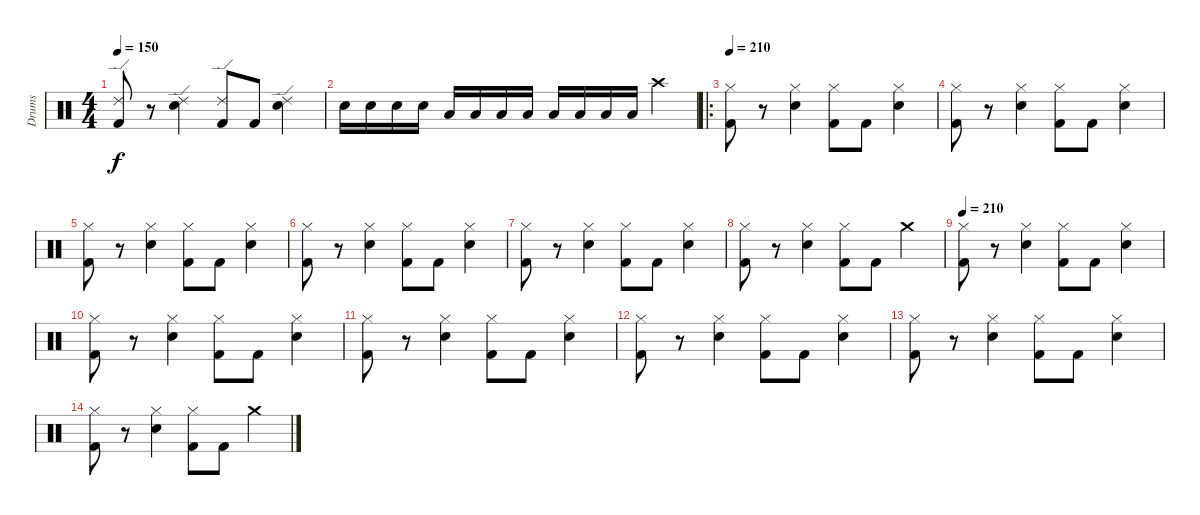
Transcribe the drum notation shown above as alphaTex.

\track ("Drums" "Drums") {instrument percussion}
\staff {score}
\articulation defaults
\ts (4 4)
\tempo 150
\clef neutral
\ks c
("Kick (hit) 2" "Ride (edge) 2").8{dy f} r.8 ("Snare (hit) 2" "Ride (edge) 2").4 ("Kick (hit) 2" "Ride (edge) 2").8 "Kick (hit) 2".8 ("Snare (hit) 2" "Ride (edge) 2").4 |
"Snare (hit) 2".16 "Snare (hit) 2".16 "Snare (hit) 2".16 "Snare (hit) 2".16 "Low Tom (hit)".16 "Low Tom (hit)".16 "Low Tom (hit)".16 "Low Tom (hit)".16 "Low Floor Tom (hit)".16 "Low Floor Tom (hit)".16 "Low Floor Tom (hit)".16 "Low Floor Tom (hit)".16 "Crash high (hit)".4 |
\ro
\tempo 210
("Kick (hit) 2" "Hi-Hat (closed)").8 r.8 ("Snare (hit) 2" "Hi-Hat (closed)").4 ("Kick (hit) 2" "Hi-Hat (closed)").8 "Kick (hit) 2".8 ("Snare (hit) 2" "Hi-Hat (closed)").4 |
("Kick (hit) 2" "Hi-Hat (closed)").8 r.8 ("Snare (hit) 2" "Hi-Hat (closed)").4 ("Kick (hit) 2" "Hi-Hat (closed)").8 "Kick (hit) 2".8 ("Snare (hit) 2" "Hi-Hat (closed)").4 |
("Kick (hit) 2" "Hi-Hat (closed)").8 r.8 ("Snare (hit) 2" "Hi-Hat (closed)").4 ("Kick (hit) 2" "Hi-Hat (closed)").8 "Kick (hit) 2".8 ("Snare (hit) 2" "Hi-Hat (closed)").4 |
("Kick (hit) 2" "Hi-Hat (closed)").8 r.8 ("Snare (hit) 2" "Hi-Hat (closed)").4 ("Kick (hit) 2" "Hi-Hat (closed)").8 "Kick (hit) 2".8 ("Snare (hit) 2" "Hi-Hat (closed)").4 |
("Kick (hit) 2" "Hi-Hat (closed)").8 r.8 ("Snare (hit) 2" "Hi-Hat (closed)").4 ("Kick (hit) 2" "Hi-Hat (closed)").8 "Kick (hit) 2".8 ("Snare (hit) 2" "Hi-Hat (closed)").4 |
("Kick (hit) 2" "Hi-Hat (closed)").8 r.8 ("Snare (hit) 2" "Hi-Hat (closed)").4 ("Kick (hit) 2" "Hi-Hat (closed)").8 "Kick (hit) 2".8 "Crash medium (hit)".4 |
\tempo 210
("Kick (hit) 2" "Hi-Hat (closed)").8 r.8 ("Snare (hit) 2" "Hi-Hat (closed)").4 ("Kick (hit) 2" "Hi-Hat (closed)").8 "Kick (hit) 2".8 ("Snare (hit) 2" "Hi-Hat (closed)").4 |
("Kick (hit) 2" "Hi-Hat (closed)").8 r.8 ("Snare (hit) 2" "Hi-Hat (closed)").4 ("Kick (hit) 2" "Hi-Hat (closed)").8 "Kick (hit) 2".8 ("Snare (hit) 2" "Hi-Hat (closed)").4 |
("Kick (hit) 2" "Hi-Hat (closed)").8 r.8 ("Snare (hit) 2" "Hi-Hat (closed)").4 ("Kick (hit) 2" "Hi-Hat (closed)").8 "Kick (hit) 2".8 ("Snare (hit) 2" "Hi-Hat (closed)").4 |
("Kick (hit) 2" "Hi-Hat (closed)").8 r.8 ("Snare (hit) 2" "Hi-Hat (closed)").4 ("Kick (hit) 2" "Hi-Hat (closed)").8 "Kick (hit) 2".8 ("Snare (hit) 2" "Hi-Hat (closed)").4 |
("Kick (hit) 2" "Hi-Hat (closed)").8 r.8 ("Snare (hit) 2" "Hi-Hat (closed)").4 ("Kick (hit) 2" "Hi-Hat (closed)").8 "Kick (hit) 2".8 ("Snare (hit) 2" "Hi-Hat (closed)").4 |
("Kick (hit) 2" "Hi-Hat (closed)").8 r.8 ("Snare (hit) 2" "Hi-Hat (closed)").4 ("Kick (hit) 2" "Hi-Hat (closed)").8 "Kick (hit) 2".8 "Crash medium (hit)".4
